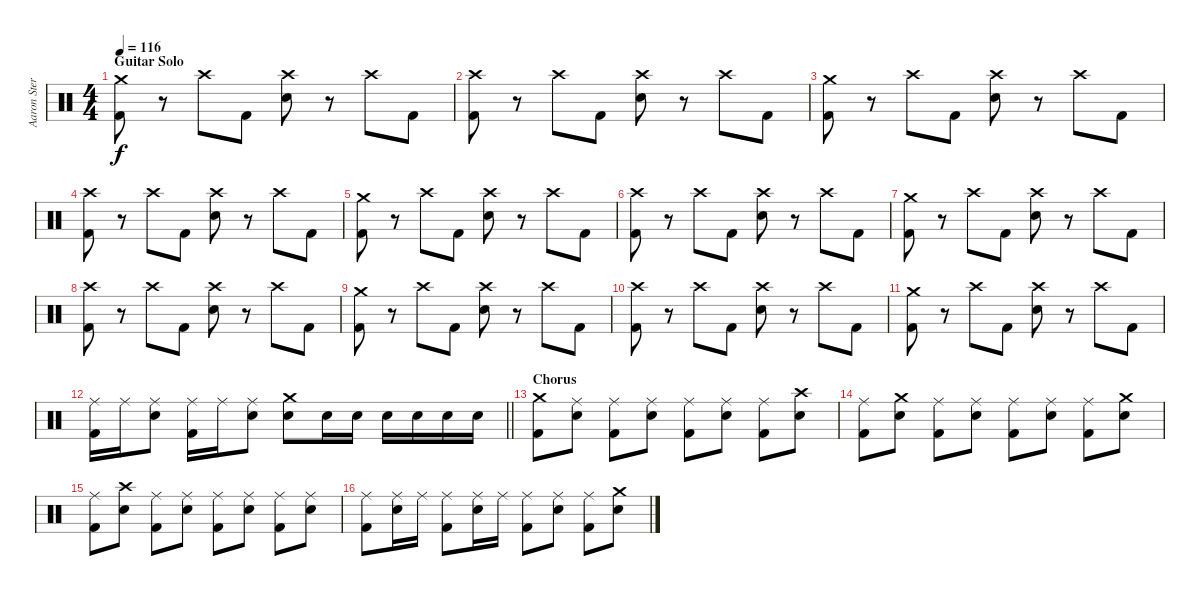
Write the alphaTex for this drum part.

\track ("Aaron Stern" "Aaron Ster") {instrument percussion}
\staff {score}
\articulation defaults
\ts (4 4)
\section ("" "Guitar Solo")
\tempo 116
\clef neutral
\ks c
("Crash medium (hit)" "Kick (hit) 2").8{dy f} r.8 "Crash high (hit)".8 "Kick (hit) 2".8 ("Crash high (hit)" "Snare (hit) 2").8 r.8 "Crash high (hit)".8 "Kick (hit) 2".8 |
("Crash high (hit)" "Kick (hit) 2").8 r.8 "Crash high (hit)".8 "Kick (hit) 2".8 ("Crash high (hit)" "Snare (hit) 2").8 r.8 "Crash high (hit)".8 "Kick (hit) 2".8 |
("Crash medium (hit)" "Kick (hit) 2").8 r.8 "Crash high (hit)".8 "Kick (hit) 2".8 ("Crash high (hit)" "Snare (hit) 2").8 r.8 "Crash high (hit)".8 "Kick (hit) 2".8 |
("Crash high (hit)" "Kick (hit) 2").8 r.8 "Crash high (hit)".8 "Kick (hit) 2".8 ("Crash high (hit)" "Snare (hit) 2").8 r.8 "Crash high (hit)".8 "Kick (hit) 2".8 |
("Crash medium (hit)" "Kick (hit) 2").8 r.8 "Crash high (hit)".8 "Kick (hit) 2".8 ("Crash high (hit)" "Snare (hit) 2").8 r.8 "Crash high (hit)".8 "Kick (hit) 2".8 |
("Crash high (hit)" "Kick (hit) 2").8 r.8 "Crash high (hit)".8 "Kick (hit) 2".8 ("Crash high (hit)" "Snare (hit) 2").8 r.8 "Crash high (hit)".8 "Kick (hit) 2".8 |
("Crash medium (hit)" "Kick (hit) 2").8 r.8 "Crash high (hit)".8 "Kick (hit) 2".8 ("Crash high (hit)" "Snare (hit) 2").8 r.8 "Crash high (hit)".8 "Kick (hit) 2".8 |
("Crash high (hit)" "Kick (hit) 2").8 r.8 "Crash high (hit)".8 "Kick (hit) 2".8 ("Crash high (hit)" "Snare (hit) 2").8 r.8 "Crash high (hit)".8 "Kick (hit) 2".8 |
("Crash medium (hit)" "Kick (hit) 2").8 r.8 "Crash high (hit)".8 "Kick (hit) 2".8 ("Crash high (hit)" "Snare (hit) 2").8 r.8 "Crash high (hit)".8 "Kick (hit) 2".8 |
("Crash high (hit)" "Kick (hit) 2").8 r.8 "Crash high (hit)".8 "Kick (hit) 2".8 ("Crash high (hit)" "Snare (hit) 2").8 r.8 "Crash high (hit)".8 "Kick (hit) 2".8 |
("Crash medium (hit)" "Kick (hit) 2").8 r.8 "Crash high (hit)".8 "Kick (hit) 2".8 ("Crash high (hit)" "Snare (hit) 2").8 r.8 "Crash high (hit)".8 "Kick (hit) 2".8 |
\barLineRight lightlight
("Ride (middle)" "Kick (hit) 2").16 "Ride (middle)".16 ("Ride (middle)" "Snare (hit) 2").8 ("Ride (middle)" "Kick (hit) 2").16 "Ride (middle)".16 ("Ride (middle)" "Snare (hit) 2").8 ("Crash medium (hit)" "Snare (hit) 2").8 "Snare (hit) 2".16 "Snare (hit) 2".16 "Snare (hit) 2".16 "Snare (hit) 2".16 "Snare (hit) 2".16 "Snare (hit) 2".16 |
\section ("" "Chorus")
("Crash medium (hit)" "Kick (hit) 2").8 ("Ride (middle)" "Snare (hit) 2").8 ("Ride (middle)" "Kick (hit) 2").8 ("Ride (middle)" "Snare (hit) 2").8 ("Ride (middle)" "Kick (hit) 2").8 ("Ride (middle)" "Snare (hit) 2").8 ("Ride (middle)" "Kick (hit) 2").8 ("Crash high (hit)" "Snare (hit) 2").8 |
("Ride (middle)" "Kick (hit) 2").8 ("Crash medium (hit)" "Snare (hit) 2").8 ("Ride (middle)" "Kick (hit) 2").8 ("Ride (middle)" "Snare (hit) 2").8 ("Ride (middle)" "Kick (hit) 2").8 ("Ride (middle)" "Snare (hit) 2").8 ("Ride (middle)" "Kick (hit) 2").8 ("Crash medium (hit)" "Snare (hit) 2").8 |
("Ride (middle)" "Kick (hit) 2").8 ("Crash high (hit)" "Snare (hit) 2").8 ("Ride (middle)" "Kick (hit) 2").8 ("Ride (middle)" "Snare (hit) 2").8 ("Ride (middle)" "Kick (hit) 2").8 ("Ride (middle)" "Snare (hit) 2").8 ("Ride (middle)" "Kick (hit) 2").8 ("Ride (middle)" "Snare (hit) 2").8 |
("Ride (middle)" "Kick (hit) 2").8 ("Ride (middle)" "Snare (hit) 2").16 "Ride (middle)".16 ("Ride (middle)" "Kick (hit) 2").8 ("Ride (middle)" "Snare (hit) 2").16 "Ride (middle)".16 ("Ride (middle)" "Kick (hit) 2").8 ("Ride (middle)" "Snare (hit) 2").8 ("Ride (middle)" "Kick (hit) 2").8 ("Crash medium (hit)" "Snare (hit) 2").8
